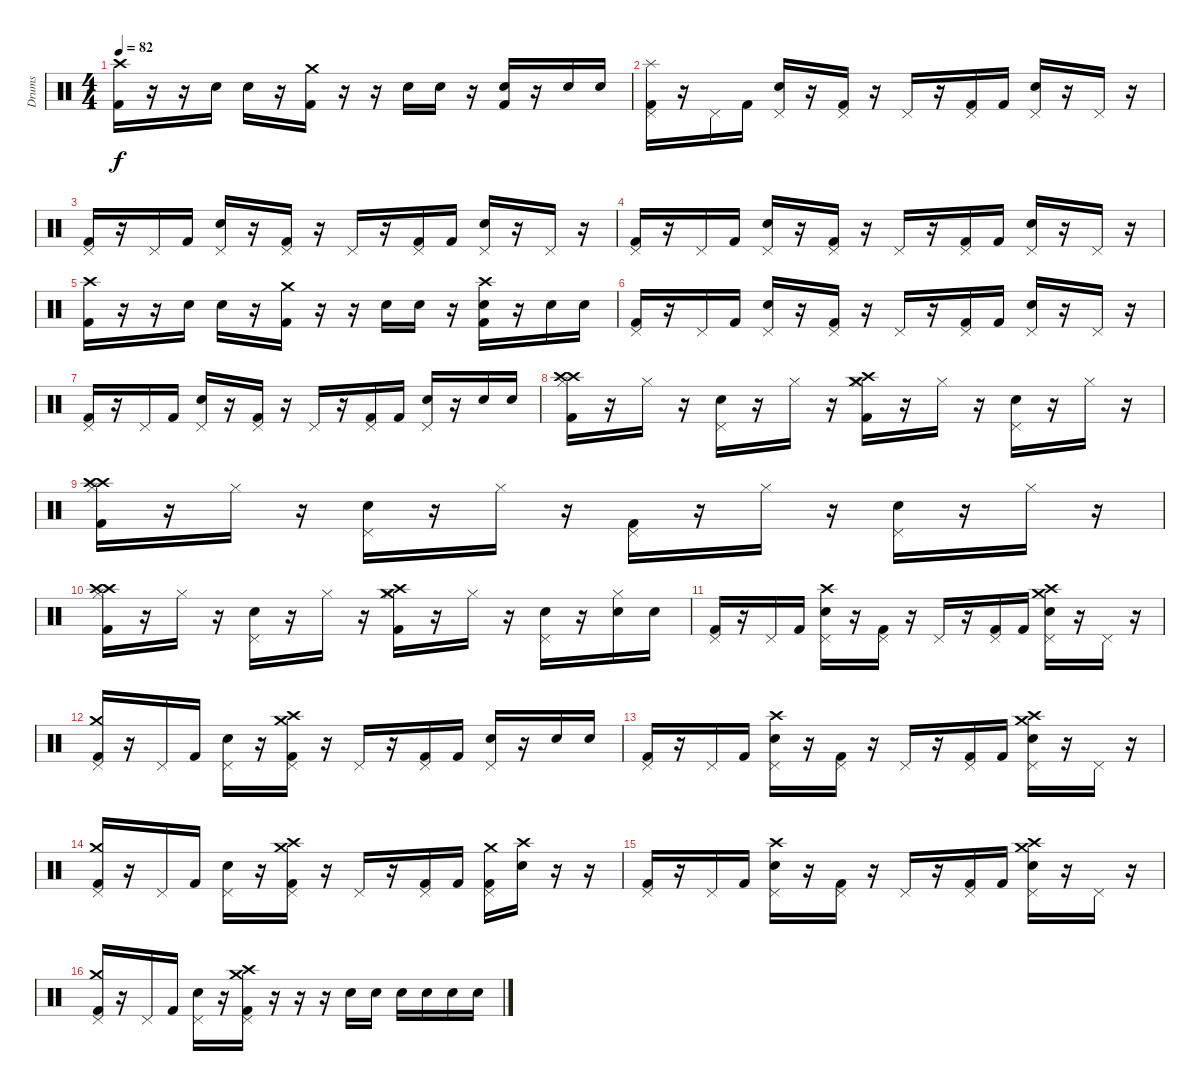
\track ("Drums" "Drums") {instrument percussion}
\staff {score}
\articulation defaults
\ts (4 4)
\tempo 82
\clef neutral
\ks c
("Crash high (hit)" "Kick (hit) 2").16{dy f} r.16 r.16 "Snare (hit) 2".16 "Snare (hit) 2".16 r.16 ("Crash medium (hit)" "Kick (hit) 2").16 r.16 r.16 "Snare (hit) 2".16 "Snare (hit) 2".16 r.16 ("Kick (hit) 2" "Snare (hit) 2").16 r.16 "Snare (hit) 2".16 "Snare (hit) 2".16 |
("Pedal Hi-Hat (hit)" "Splash (hit)" "Kick (hit) 2").16 r.16 "Pedal Hi-Hat (hit)".16 "Kick (hit) 2".16 ("Pedal Hi-Hat (hit)" "Snare (hit) 2").16 r.16 ("Pedal Hi-Hat (hit)" "Kick (hit) 2").16 r.16 "Pedal Hi-Hat (hit)".16 r.16 ("Pedal Hi-Hat (hit)" "Kick (hit) 2").16 "Kick (hit) 2".16 ("Pedal Hi-Hat (hit)" "Snare (hit) 2").16 r.16 "Pedal Hi-Hat (hit)".16 r.16 |
("Pedal Hi-Hat (hit)" "Kick (hit) 2").16 r.16 "Pedal Hi-Hat (hit)".16 "Kick (hit) 2".16 ("Pedal Hi-Hat (hit)" "Snare (hit) 2").16 r.16 ("Pedal Hi-Hat (hit)" "Kick (hit) 2").16 r.16 "Pedal Hi-Hat (hit)".16 r.16 ("Pedal Hi-Hat (hit)" "Kick (hit) 2").16 "Kick (hit) 2".16 ("Pedal Hi-Hat (hit)" "Snare (hit) 2").16 r.16 "Pedal Hi-Hat (hit)".16 r.16 |
("Pedal Hi-Hat (hit)" "Kick (hit) 2").16 r.16 "Pedal Hi-Hat (hit)".16 "Kick (hit) 2".16 ("Pedal Hi-Hat (hit)" "Snare (hit) 2").16 r.16 ("Pedal Hi-Hat (hit)" "Kick (hit) 2").16 r.16 "Pedal Hi-Hat (hit)".16 r.16 ("Pedal Hi-Hat (hit)" "Kick (hit) 2").16 "Kick (hit) 2".16 ("Pedal Hi-Hat (hit)" "Snare (hit) 2").16 r.16 "Pedal Hi-Hat (hit)".16 r.16 |
("Crash high (hit)" "Kick (hit) 2").16 r.16 r.16 "Snare (hit) 2".16 "Snare (hit) 2".16 r.16 ("Crash medium (hit)" "Kick (hit) 2").16 r.16 r.16 "Snare (hit) 2".16 "Snare (hit) 2".16 r.16 ("Crash high (hit)" "Kick (hit) 2" "Snare (hit) 2").16 r.16 "Snare (hit) 2".16 "Snare (hit) 2".16 |
("Pedal Hi-Hat (hit)" "Kick (hit) 2").16 r.16 "Pedal Hi-Hat (hit)".16 "Kick (hit) 2".16 ("Pedal Hi-Hat (hit)" "Snare (hit) 2").16 r.16 ("Pedal Hi-Hat (hit)" "Kick (hit) 2").16 r.16 "Pedal Hi-Hat (hit)".16 r.16 ("Pedal Hi-Hat (hit)" "Kick (hit) 2").16 "Kick (hit) 2".16 ("Pedal Hi-Hat (hit)" "Snare (hit) 2").16 r.16 "Pedal Hi-Hat (hit)".16 r.16 |
("Pedal Hi-Hat (hit)" "Kick (hit) 2").16 r.16 "Pedal Hi-Hat (hit)".16 "Kick (hit) 2".16 ("Pedal Hi-Hat (hit)" "Snare (hit) 2").16 r.16 ("Pedal Hi-Hat (hit)" "Kick (hit) 2").16 r.16 "Pedal Hi-Hat (hit)".16 r.16 ("Pedal Hi-Hat (hit)" "Kick (hit) 2").16 "Kick (hit) 2".16 ("Pedal Hi-Hat (hit)" "Snare (hit) 2").16 r.16 "Snare (hit) 2".16 "Snare (hit) 2".16 |
("Hi-Hat (closed)" "Crash high (hit)" "Crash high (hit)" "Kick (hit) 2").16 r.16 "Hi-Hat (closed)".16 r.16 ("Pedal Hi-Hat (hit)" "Snare (hit) 2").16 r.16 "Hi-Hat (closed)".16 r.16 ("Hi-Hat (closed)" "Crash high (hit)" "Crash medium (hit)" "Kick (hit) 2").16 r.16 "Hi-Hat (closed)".16 r.16 ("Pedal Hi-Hat (hit)" "Snare (hit) 2").16 r.16 "Hi-Hat (closed)".16 r.16 |
("Hi-Hat (closed)" "Crash high (hit)" "Crash high (hit)" "Kick (hit) 2").16 r.16 "Hi-Hat (closed)".16 r.16 ("Pedal Hi-Hat (hit)" "Snare (hit) 2").16 r.16 "Hi-Hat (closed)".16 r.16 ("Pedal Hi-Hat (hit)" "Kick (hit) 2").16 r.16 "Hi-Hat (closed)".16 r.16 ("Pedal Hi-Hat (hit)" "Snare (hit) 2").16 r.16 "Hi-Hat (closed)".16 r.16 |
("Hi-Hat (closed)" "Crash high (hit)" "Crash high (hit)" "Kick (hit) 2").16 r.16 "Hi-Hat (closed)".16 r.16 ("Pedal Hi-Hat (hit)" "Snare (hit) 2").16 r.16 "Hi-Hat (closed)".16 r.16 ("Hi-Hat (closed)" "Crash high (hit)" "Crash medium (hit)" "Kick (hit) 2").16 r.16 "Hi-Hat (closed)".16 r.16 ("Pedal Hi-Hat (hit)" "Snare (hit) 2").16 r.16 ("Hi-Hat (closed)" "Snare (hit) 2").16 "Snare (hit) 2".16 |
("Pedal Hi-Hat (hit)" "Kick (hit) 2").16 r.16 "Pedal Hi-Hat (hit)".16 "Kick (hit) 2".16 ("Pedal Hi-Hat (hit)" "Crash high (hit)" "Snare (hit) 2").16 r.16 ("Pedal Hi-Hat (hit)" "Kick (hit) 2").16 r.16 "Pedal Hi-Hat (hit)".16 r.16 ("Pedal Hi-Hat (hit)" "Kick (hit) 2").16 "Kick (hit) 2".16 ("Pedal Hi-Hat (hit)" "Crash high (hit)" "Snare (hit) 2" "Crash medium (hit)").16 r.16 "Pedal Hi-Hat (hit)".16 r.16 |
("Pedal Hi-Hat (hit)" "Crash medium (hit)" "Kick (hit) 2").16 r.16 "Pedal Hi-Hat (hit)".16 "Kick (hit) 2".16 ("Pedal Hi-Hat (hit)" "Snare (hit) 2").16 r.16 ("Pedal Hi-Hat (hit)" "Crash medium (hit)" "Kick (hit) 2" "Crash high (hit)").16 r.16 "Pedal Hi-Hat (hit)".16 r.16 ("Pedal Hi-Hat (hit)" "Kick (hit) 2").16 "Kick (hit) 2".16 ("Pedal Hi-Hat (hit)" "Snare (hit) 2").16 r.16 "Snare (hit) 2".16 "Snare (hit) 2".16 |
("Pedal Hi-Hat (hit)" "Kick (hit) 2").16 r.16 "Pedal Hi-Hat (hit)".16 "Kick (hit) 2".16 ("Pedal Hi-Hat (hit)" "Crash high (hit)" "Snare (hit) 2").16 r.16 ("Pedal Hi-Hat (hit)" "Kick (hit) 2").16 r.16 "Pedal Hi-Hat (hit)".16 r.16 ("Pedal Hi-Hat (hit)" "Kick (hit) 2").16 "Kick (hit) 2".16 ("Pedal Hi-Hat (hit)" "Crash high (hit)" "Snare (hit) 2" "Crash medium (hit)").16 r.16 "Pedal Hi-Hat (hit)".16 r.16 |
("Pedal Hi-Hat (hit)" "Crash medium (hit)" "Kick (hit) 2").16 r.16 "Pedal Hi-Hat (hit)".16 "Kick (hit) 2".16 ("Pedal Hi-Hat (hit)" "Snare (hit) 2").16 r.16 ("Pedal Hi-Hat (hit)" "Crash medium (hit)" "Kick (hit) 2" "Crash high (hit)").16 r.16 "Pedal Hi-Hat (hit)".16 r.16 ("Pedal Hi-Hat (hit)" "Kick (hit) 2").16 "Kick (hit) 2".16 ("Pedal Hi-Hat (hit)" "Crash medium (hit)" "Kick (hit) 2").16 ("Crash high (hit)" "Snare (hit) 2").16 r.16 r.16 |
("Pedal Hi-Hat (hit)" "Kick (hit) 2").16 r.16 "Pedal Hi-Hat (hit)".16 "Kick (hit) 2".16 ("Pedal Hi-Hat (hit)" "Crash high (hit)" "Snare (hit) 2").16 r.16 ("Pedal Hi-Hat (hit)" "Kick (hit) 2").16 r.16 "Pedal Hi-Hat (hit)".16 r.16 ("Pedal Hi-Hat (hit)" "Kick (hit) 2").16 "Kick (hit) 2".16 ("Pedal Hi-Hat (hit)" "Crash high (hit)" "Snare (hit) 2" "Crash medium (hit)").16 r.16 "Pedal Hi-Hat (hit)".16 r.16 |
("Pedal Hi-Hat (hit)" "Crash medium (hit)" "Kick (hit) 2").16 r.16 "Pedal Hi-Hat (hit)".16 "Kick (hit) 2".16 ("Pedal Hi-Hat (hit)" "Snare (hit) 2").16 r.16 ("Pedal Hi-Hat (hit)" "Crash medium (hit)" "Kick (hit) 2" "Crash high (hit)").16 r.16 r.16{volume 7} r.16{volume 16} "Snare (hit) 2".16 "Snare (hit) 2".16 "Snare (hit) 2".16 "Snare (hit) 2".16 "Snare (hit) 2".16 "Snare (hit) 2".16
